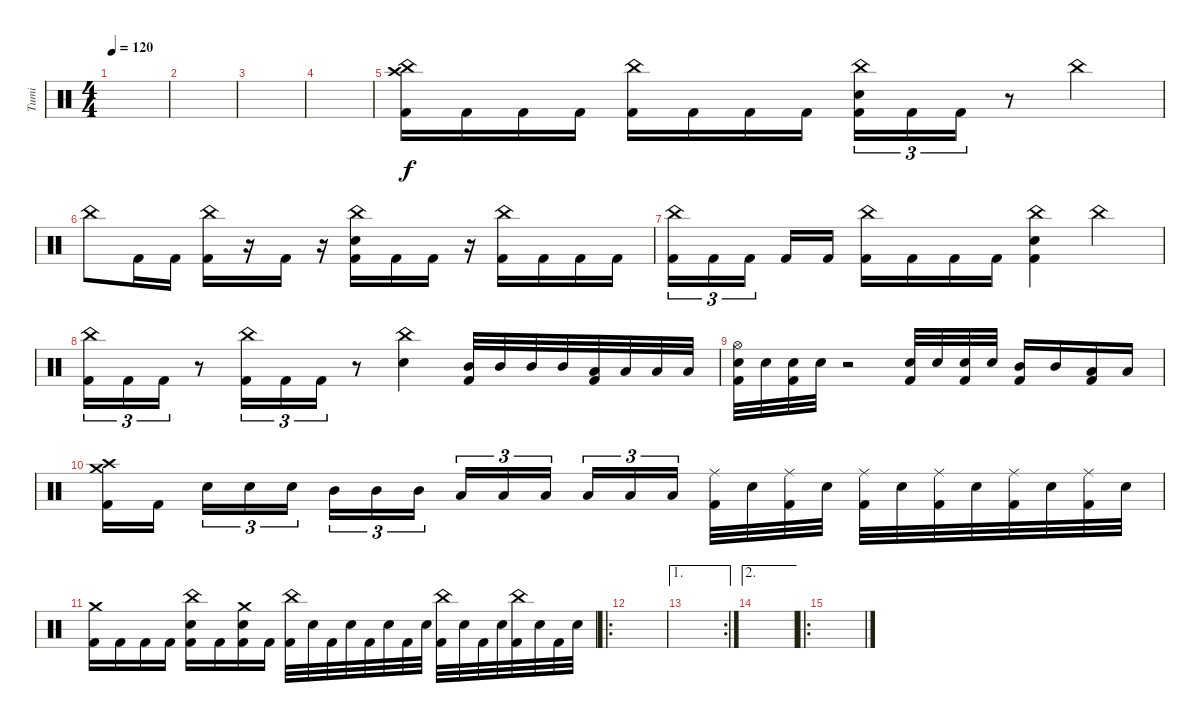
\track ("Tumi" "Tumi") {instrument percussion}
\staff {score}
\articulation defaults
\ts (4 4)
\tempo 120
\clef neutral
\ks c
|
|
|
|
("China (hit)" "Crash high (hit)" "Kick (hit) 2").16 "Kick (hit) 2".16 "Kick (hit) 2".16 "Kick (hit) 2".16 ("China (hit)" "Kick (hit) 2").16 "Kick (hit) 2".16 "Kick (hit) 2".16 "Kick (hit) 2".16 ("China (hit)" "Electric Snare (hit)" "Kick (hit) 2").16{tu (3 2)} "Kick (hit) 2".16{tu (3 2)} "Kick (hit) 2".16{tu (3 2)} r.8 "China (hit)".4 |
"China (hit)".8 "Kick (hit) 2".16 "Kick (hit) 2".16 ("China (hit)" "Kick (hit) 2").16 r.16 "Kick (hit) 2".16 r.16 ("China (hit)" "Electric Snare (hit)" "Kick (hit) 2").16 "Kick (hit) 2".16 "Kick (hit) 2".16 r.16 ("China (hit)" "Kick (hit) 2").16 "Kick (hit) 2".16 "Kick (hit) 2".16 "Kick (hit) 2".16 |
("China (hit)" "Kick (hit) 2").16{tu (3 2)} "Kick (hit) 2".16{tu (3 2)} "Kick (hit) 2".16{tu (3 2) beam splitsecondary} "Kick (hit) 2".16 "Kick (hit) 2".16 ("China (hit)" "Kick (hit) 2").16 "Kick (hit) 2".16 "Kick (hit) 2".16 "Kick (hit) 2".16 ("China (hit)" "Electric Snare (hit)" "Kick (hit) 2").4 "China (hit)".4 |
("China (hit)" "Kick (hit) 2").16{tu (3 2)} "Kick (hit) 2".16{tu (3 2)} "Kick (hit) 2".16{tu (3 2)} r.8 ("China (hit)" "Kick (hit) 2").16{tu (3 2)} "Kick (hit) 2".16{tu (3 2)} "Kick (hit) 2".16{tu (3 2)} r.8 ("China (hit)" "Electric Snare (hit)").4 ("Mid Tom (hit)" "Kick (hit) 2").32 "Mid Tom (hit)".32 "Mid Tom (hit)".32 "Mid Tom (hit)".32 ("Low Floor Tom (hit)" "Kick (hit) 2").32 "Low Floor Tom (hit)".32 "Low Floor Tom (hit)".32 "Low Floor Tom (hit)".32 |
("Hi-Hat (open)" "Electric Snare (hit)" "Kick (hit) 2").32 "Electric Snare (hit)".32 ("Electric Snare (hit)" "Kick (hit) 2").32 "Electric Snare (hit)".32 r.2 ("Electric Snare (hit)" "Kick (hit) 2").32 "Electric Snare (hit)".32 ("Electric Snare (hit)" "Kick (hit) 2").32 "Electric Snare (hit)".32 ("Mid Tom (hit)" "Kick (hit) 2").16 "Mid Tom (hit)".16 ("Low Tom (hit)" "Kick (hit) 2").16 "Low Tom (hit)".16 |
("Crash medium (hit)" "Crash high (hit)" "Kick (hit) 2").16 "Kick (hit) 2".16{beam splitsecondary} "Electric Snare (hit)".16{tu (3 2)} "Electric Snare (hit)".16{tu (3 2)} "Electric Snare (hit)".16{tu (3 2)} "Mid Tom (hit)".16{tu (3 2)} "Mid Tom (hit)".16{tu (3 2)} "Mid Tom (hit)".16{tu (3 2) beam splitsecondary} "Low Tom (hit)".16{tu (3 2)} "Low Tom (hit)".16{tu (3 2)} "Low Tom (hit)".16{tu (3 2)} "Low Floor Tom (hit)".16{tu (3 2)} "Low Floor Tom (hit)".16{tu (3 2)} "Low Floor Tom (hit)".16{tu (3 2) beam splitsecondary} ("Ride (middle)" "Kick (hit) 2").32 "Electric Snare (hit)".32 ("Ride (middle)" "Kick (hit) 2").32 "Electric Snare (hit)".32 ("Ride (middle)" "Kick (hit) 2").32 "Electric Snare (hit)".32 ("Ride (middle)" "Kick (hit) 2").32 "Electric Snare (hit)".32 ("Ride (middle)" "Kick (hit) 2").32 "Electric Snare (hit)".32 ("Ride (middle)" "Kick (hit) 2").32 "Electric Snare (hit)".32 |
("Crash medium (hit)" "Kick (hit) 2").16 "Kick (hit) 2".16 "Kick (hit) 2".16 "Kick (hit) 2".16 ("China (hit)" "Electric Snare (hit)" "Kick (hit) 2").16 "Kick (hit) 2".16 ("Crash medium (hit)" "Electric Snare (hit)" "Kick (hit) 2").16 "Kick (hit) 2".16 ("China (hit)" "Kick (hit) 2").32 "Electric Snare (hit)".32 "Kick (hit) 2".32 "Electric Snare (hit)".32 "Kick (hit) 2".32 "Electric Snare (hit)".32 "Kick (hit) 2".32 "Electric Snare (hit)".32 ("China (hit)" "Kick (hit) 2").32 "Electric Snare (hit)".32 "Kick (hit) 2".32 "Electric Snare (hit)".32 ("China (hit)" "Kick (hit) 2").32 "Electric Snare (hit)".32 "Kick (hit) 2".32 "Electric Snare (hit)".32 |
\ro
|
\ae 1
\rc 2
|
\ae 2
|
\ro
